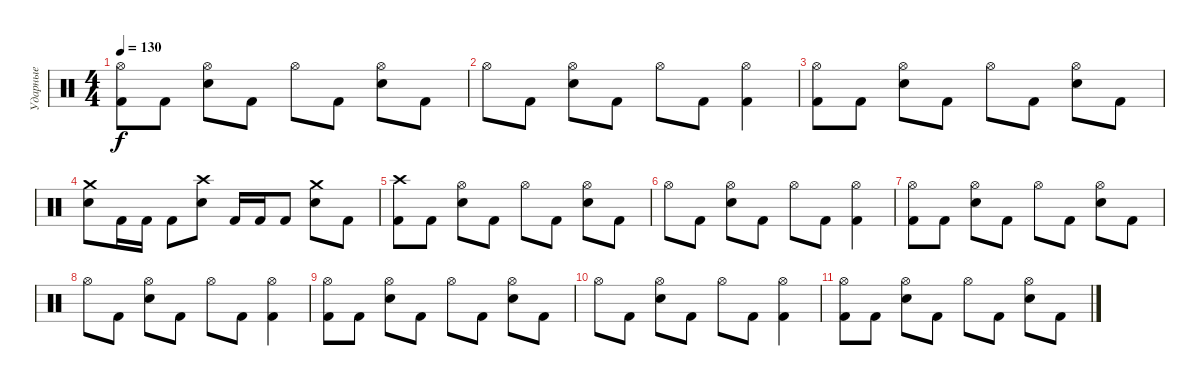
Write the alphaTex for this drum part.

\track ("Ударные" "Ударные") {instrument percussion}
\staff {score}
\articulation defaults
\ts (4 4)
\tempo 130
\clef neutral
\ks c
("Hi-Hat (open)" "Kick (hit) 2").8{dy f} "Kick (hit) 2".8 ("Hi-Hat (open)" "Snare (hit) 2").8 "Kick (hit) 2".8 "Hi-Hat (open)".8 "Kick (hit) 2".8 ("Hi-Hat (open)" "Snare (hit) 2").8 "Kick (hit) 2".8 |
"Hi-Hat (open)".8 "Kick (hit) 2".8 ("Hi-Hat (open)" "Snare (hit) 2").8 "Kick (hit) 2".8 "Hi-Hat (open)".8 "Kick (hit) 2".8 ("Hi-Hat (open)" "Kick (hit) 2").4 |
("Hi-Hat (open)" "Kick (hit) 2").8 "Kick (hit) 2".8 ("Hi-Hat (open)" "Snare (hit) 2").8 "Kick (hit) 2".8 "Hi-Hat (open)".8 "Kick (hit) 2".8 ("Hi-Hat (open)" "Snare (hit) 2").8 "Kick (hit) 2".8 |
("Crash medium (hit)" "Snare (hit) 2").8 "Kick (hit) 2".16 "Kick (hit) 2".16 "Kick (hit) 2".8 ("Crash high (hit)" "Snare (hit) 2").8 "Kick (hit) 2".16 "Kick (hit) 2".16 "Kick (hit) 2".8 ("Crash medium (hit)" "Snare (hit) 2").8 "Kick (hit) 2".8 |
("Crash high (hit)" "Kick (hit) 2").8 "Kick (hit) 2".8 ("Hi-Hat (open)" "Snare (hit) 2").8 "Kick (hit) 2".8 "Hi-Hat (open)".8 "Kick (hit) 2".8 ("Hi-Hat (open)" "Snare (hit) 2").8 "Kick (hit) 2".8 |
"Hi-Hat (open)".8 "Kick (hit) 2".8 ("Hi-Hat (open)" "Snare (hit) 2").8 "Kick (hit) 2".8 "Hi-Hat (open)".8 "Kick (hit) 2".8 ("Hi-Hat (open)" "Kick (hit) 2").4 |
("Hi-Hat (open)" "Kick (hit) 2").8 "Kick (hit) 2".8 ("Hi-Hat (open)" "Snare (hit) 2").8 "Kick (hit) 2".8 "Hi-Hat (open)".8 "Kick (hit) 2".8 ("Hi-Hat (open)" "Snare (hit) 2").8 "Kick (hit) 2".8 |
"Hi-Hat (open)".8 "Kick (hit) 2".8 ("Hi-Hat (open)" "Snare (hit) 2").8 "Kick (hit) 2".8 "Hi-Hat (open)".8 "Kick (hit) 2".8 ("Hi-Hat (open)" "Kick (hit) 2").4 |
("Hi-Hat (open)" "Kick (hit) 2").8 "Kick (hit) 2".8 ("Hi-Hat (open)" "Snare (hit) 2").8 "Kick (hit) 2".8 "Hi-Hat (open)".8 "Kick (hit) 2".8 ("Hi-Hat (open)" "Snare (hit) 2").8 "Kick (hit) 2".8 |
"Hi-Hat (open)".8 "Kick (hit) 2".8 ("Hi-Hat (open)" "Snare (hit) 2").8 "Kick (hit) 2".8 "Hi-Hat (open)".8 "Kick (hit) 2".8 ("Hi-Hat (open)" "Kick (hit) 2").4 |
("Hi-Hat (open)" "Kick (hit) 2").8 "Kick (hit) 2".8 ("Hi-Hat (open)" "Snare (hit) 2").8 "Kick (hit) 2".8 "Hi-Hat (open)".8 "Kick (hit) 2".8 ("Hi-Hat (open)" "Snare (hit) 2").8 "Kick (hit) 2".8
